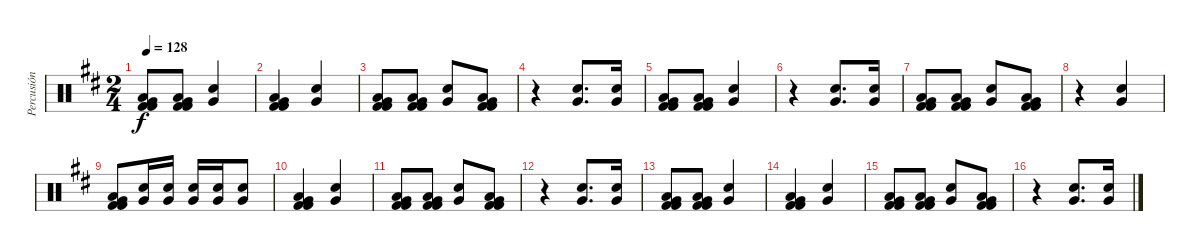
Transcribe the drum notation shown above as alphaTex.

\track ("Percusión" "Percusión") {instrument percussion}
\staff {score}
\articulation defaults
\ts (2 4)
\tempo 128
\clef neutral
\ks d
("Kick (hit) 2" "Low Floor Tom (hit)" "Kick (hit) 2" "Very Low Tom (hit)").8{dy f} ("Kick (hit) 2" "Low Floor Tom (hit)" "Kick (hit) 2" "Very Low Tom (hit)").8 ("Electric Snare (hit)" "Very Low Tom (hit)").4 |
("Kick (hit) 2" "Low Floor Tom (hit)" "Kick (hit) 2" "Very Low Tom (hit)").4 ("Electric Snare (hit)" "Very Low Tom (hit)").4 |
("Kick (hit) 2" "Low Floor Tom (hit)" "Kick (hit) 2" "Very Low Tom (hit)").8 ("Kick (hit) 2" "Low Floor Tom (hit)" "Kick (hit) 2" "Very Low Tom (hit)").8 ("Electric Snare (hit)" "Very Low Tom (hit)").8 ("Kick (hit) 2" "Low Floor Tom (hit)" "Kick (hit) 2" "Very Low Tom (hit)").8 |
r.4 ("Electric Snare (hit)" "Very Low Tom (hit)").8{d} ("Electric Snare (hit)" "Very Low Tom (hit)").16 |
("Kick (hit) 2" "Low Floor Tom (hit)" "Kick (hit) 2" "Very Low Tom (hit)").8 ("Kick (hit) 2" "Low Floor Tom (hit)" "Kick (hit) 2" "Very Low Tom (hit)").8 ("Electric Snare (hit)" "Very Low Tom (hit)").4 |
r.4 ("Electric Snare (hit)" "Very Low Tom (hit)").8{d} ("Electric Snare (hit)" "Very Low Tom (hit)").16 |
("Kick (hit) 2" "Low Floor Tom (hit)" "Kick (hit) 2" "Very Low Tom (hit)").8 ("Kick (hit) 2" "Low Floor Tom (hit)" "Kick (hit) 2" "Very Low Tom (hit)").8 ("Electric Snare (hit)" "Very Low Tom (hit)").8 ("Kick (hit) 2" "Low Floor Tom (hit)" "Kick (hit) 2" "Very Low Tom (hit)").8 |
r.4 ("Electric Snare (hit)" "Very Low Tom (hit)").4 |
("Kick (hit) 2" "Low Floor Tom (hit)" "Kick (hit) 2" "Very Low Tom (hit)").8 ("Electric Snare (hit)" "Very Low Tom (hit)").16 ("Very Low Tom (hit)" "Snare (hit) 2").16 ("Electric Snare (hit)" "Very Low Tom (hit)").16 ("Very Low Tom (hit)" "Snare (hit) 2").16 ("Electric Snare (hit)" "Very Low Tom (hit)").8 |
("Kick (hit) 2" "Low Floor Tom (hit)" "Kick (hit) 2" "Very Low Tom (hit)").4 ("Electric Snare (hit)" "Very Low Tom (hit)").4 |
("Kick (hit) 2" "Low Floor Tom (hit)" "Kick (hit) 2" "Very Low Tom (hit)").8 ("Kick (hit) 2" "Low Floor Tom (hit)" "Kick (hit) 2" "Very Low Tom (hit)").8 ("Electric Snare (hit)" "Very Low Tom (hit)").8 ("Kick (hit) 2" "Low Floor Tom (hit)" "Kick (hit) 2" "Very Low Tom (hit)").8 |
r.4 ("Electric Snare (hit)" "Very Low Tom (hit)").8{d} ("Electric Snare (hit)" "Very Low Tom (hit)").16 |
("Kick (hit) 2" "Low Floor Tom (hit)" "Kick (hit) 2" "Very Low Tom (hit)").8 ("Kick (hit) 2" "Low Floor Tom (hit)" "Kick (hit) 2" "Very Low Tom (hit)").8 ("Electric Snare (hit)" "Very Low Tom (hit)").4 |
("Kick (hit) 2" "Low Floor Tom (hit)" "Kick (hit) 2" "Very Low Tom (hit)").4 ("Electric Snare (hit)" "Very Low Tom (hit)").4 |
("Kick (hit) 2" "Low Floor Tom (hit)" "Kick (hit) 2" "Very Low Tom (hit)").8 ("Kick (hit) 2" "Low Floor Tom (hit)" "Kick (hit) 2" "Very Low Tom (hit)").8 ("Electric Snare (hit)" "Very Low Tom (hit)").8 ("Kick (hit) 2" "Low Floor Tom (hit)" "Kick (hit) 2" "Very Low Tom (hit)").8 |
r.4 ("Electric Snare (hit)" "Very Low Tom (hit)").8{d} ("Electric Snare (hit)" "Very Low Tom (hit)").16
